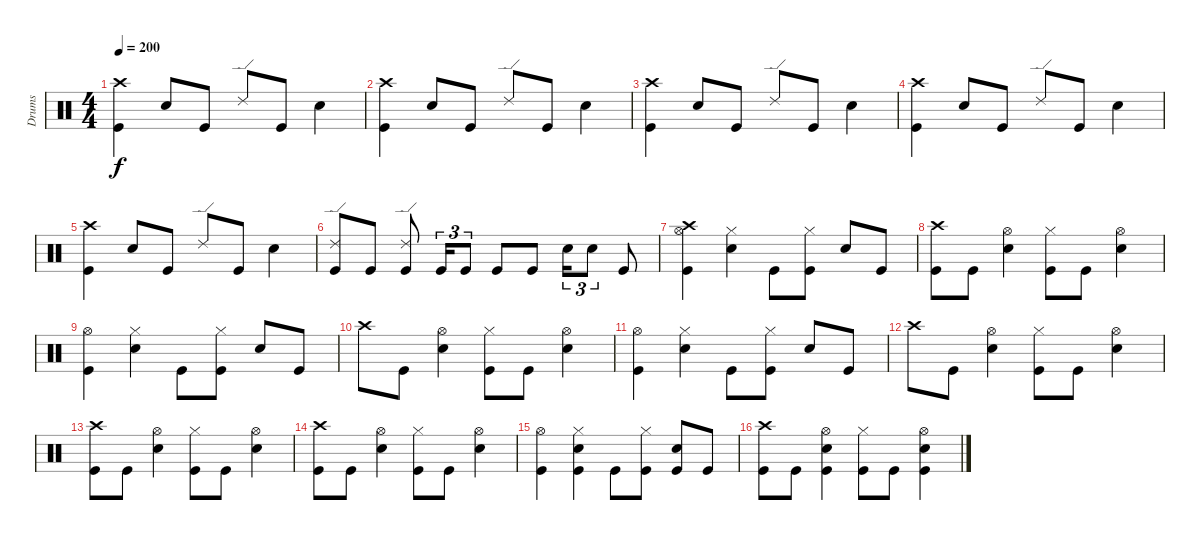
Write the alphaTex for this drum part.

\track ("Drums" "Drums") {instrument percussion}
\staff {score}
\articulation defaults
\ts (4 4)
\tempo 200
\clef neutral
\ks c
("Crash high (hit)" "Kick (hit)").4{dy f} "Snare (hit) 2".8 "Kick (hit)".8 "Ride (edge) 2".8 "Kick (hit)".8 "Snare (hit) 2".4 |
("Crash high (hit)" "Kick (hit)").4 "Snare (hit) 2".8 "Kick (hit)".8 "Ride (edge) 2".8 "Kick (hit)".8 "Snare (hit) 2".4 |
("Crash high (hit)" "Kick (hit)").4 "Snare (hit) 2".8 "Kick (hit)".8 "Ride (edge) 2".8 "Kick (hit)".8 "Snare (hit) 2".4 |
("Crash high (hit)" "Kick (hit)").4 "Snare (hit) 2".8 "Kick (hit)".8 "Ride (edge) 2".8 "Kick (hit)".8 "Snare (hit) 2".4 |
("Crash high (hit)" "Kick (hit)").4 "Snare (hit) 2".8 "Kick (hit)".8 "Ride (edge) 2".8 "Kick (hit)".8 "Snare (hit) 2".4 |
("Ride (edge) 2" "Kick (hit)").8 "Kick (hit)".8 ("Ride (edge) 2" "Kick (hit)").8 "Kick (hit)".16{tu (3 2)} "Kick (hit)".8{tu (3 2)} "Kick (hit)".8 "Kick (hit)".8 "Snare (hit) 2".16{tu (3 2)} "Snare (hit) 2".8{tu (3 2)} "Kick (hit)".8 |
("Hi-Hat (open)" "Crash high (hit)" "Kick (hit)").4 ("Hi-Hat (closed)" "Snare (hit) 2").4 "Kick (hit)".8 ("Hi-Hat (closed)" "Kick (hit)").8 "Snare (hit) 2".8 "Kick (hit)".8 |
("Crash high (hit)" "Kick (hit)").8 "Kick (hit)".8 ("Hi-Hat (open)" "Snare (hit) 2").4 ("Hi-Hat (closed)" "Kick (hit)").8 "Kick (hit)".8 ("Hi-Hat (open)" "Snare (hit) 2").4 |
("Hi-Hat (open)" "Kick (hit)").4 ("Hi-Hat (closed)" "Snare (hit) 2").4 "Kick (hit)".8 ("Hi-Hat (closed)" "Kick (hit)").8 "Snare (hit) 2".8 "Kick (hit)".8 |
"Crash high (hit)".8 "Kick (hit)".8 ("Hi-Hat (open)" "Snare (hit) 2").4 ("Hi-Hat (closed)" "Kick (hit)").8 "Kick (hit)".8 ("Hi-Hat (open)" "Snare (hit) 2").4 |
("Hi-Hat (open)" "Kick (hit)").4 ("Hi-Hat (closed)" "Snare (hit) 2").4 "Kick (hit)".8 ("Hi-Hat (closed)" "Kick (hit)").8 "Snare (hit) 2".8 "Kick (hit)".8 |
"Crash high (hit)".8 "Kick (hit)".8 ("Hi-Hat (open)" "Snare (hit) 2").4 ("Hi-Hat (closed)" "Kick (hit)").8 "Kick (hit)".8 ("Hi-Hat (open)" "Snare (hit) 2").4 |
("Crash high (hit)" "Kick (hit)").8 "Kick (hit)".8 ("Hi-Hat (open)" "Snare (hit) 2").4 ("Hi-Hat (closed)" "Kick (hit)").8 "Kick (hit)".8 ("Hi-Hat (open)" "Snare (hit) 2").4 |
("Crash high (hit)" "Kick (hit)").8 "Kick (hit)".8 ("Hi-Hat (open)" "Snare (hit) 2").4 ("Hi-Hat (closed)" "Kick (hit)").8 "Kick (hit)".8 ("Hi-Hat (open)" "Snare (hit) 2").4 |
("Hi-Hat (open)" "Kick (hit)").4 ("Hi-Hat (closed)" "Snare (hit) 2" "Kick (hit)").4 "Kick (hit)".8 ("Hi-Hat (closed)" "Kick (hit)").8 ("Snare (hit) 2" "Kick (hit)").8 "Kick (hit)".8 |
("Crash high (hit)" "Kick (hit)").8 "Kick (hit)".8 ("Hi-Hat (open)" "Snare (hit) 2" "Kick (hit)").4 ("Hi-Hat (closed)" "Kick (hit)").8 "Kick (hit)".8 ("Hi-Hat (open)" "Snare (hit) 2" "Kick (hit)").4
